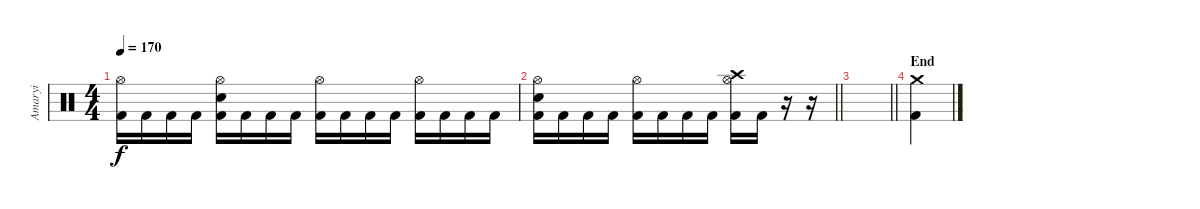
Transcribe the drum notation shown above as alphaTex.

\track ("Amaryi" "Amaryi") {instrument percussion}
\staff {score}
\articulation defaults
\ts (4 4)
\tempo 170
\clef neutral
\ks c
("Hi-Hat (open)" "Kick (hit) 2").16{dy f} "Kick (hit) 2".16 "Kick (hit) 2".16 "Kick (hit) 2".16 ("Hi-Hat (open)" "Electric Snare (hit)" "Kick (hit) 2").16 "Kick (hit) 2".16 "Kick (hit) 2".16 "Kick (hit) 2".16 ("Hi-Hat (open)" "Kick (hit) 2").16 "Kick (hit) 2".16 "Kick (hit) 2".16 "Kick (hit) 2".16 ("Hi-Hat (open)" "Kick (hit) 2").16 "Kick (hit) 2".16 "Kick (hit) 2".16 "Kick (hit) 2".16 |
\barLineRight lightlight
("Hi-Hat (open)" "Electric Snare (hit)" "Kick (hit) 2").16 "Kick (hit) 2".16 "Kick (hit) 2".16 "Kick (hit) 2".16 ("Hi-Hat (open)" "Kick (hit) 2").16 "Kick (hit) 2".16 "Kick (hit) 2".16 "Kick (hit) 2".16 ("Crash high (hit)" "Hi-Hat (open)" "Kick (hit) 2").16 "Kick (hit) 2".16 r.16 r.16 |
\barLineRight lightlight
|
\section ("" "End")
("Crash medium (hit)" "Kick (hit) 2").4
